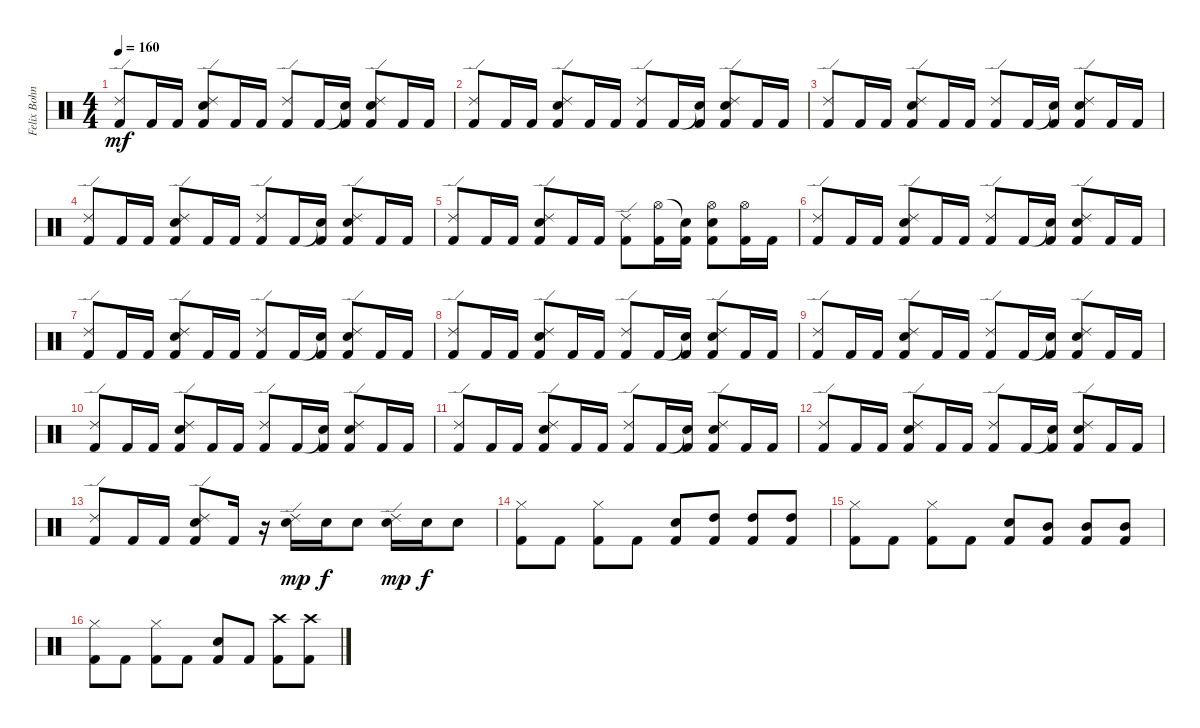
\track ("Felix Bohnke" "Felix Bohn") {instrument percussion}
\staff {score}
\articulation defaults
\ts (4 4)
\tempo 160
\clef neutral
\ks c
("Ride (edge) 2" "Kick (hit) 2").8{dy mf} "Kick (hit) 2".16 "Kick (hit) 2".16 ("Ride (edge) 2" "Electric Snare (hit)" "Kick (hit) 2").8 "Kick (hit) 2".16 "Kick (hit) 2".16 ("Ride (edge) 2" "Kick (hit) 2").8 "Kick (hit) 2".16 ("Snare (hit)"{t} "Kick (hit) 2").16 ("Ride (edge) 2" "Electric Snare (hit)" "Kick (hit) 2").8 "Kick (hit) 2".16 "Kick (hit) 2".16 |
("Ride (edge) 2" "Kick (hit) 2").8 "Kick (hit) 2".16 "Kick (hit) 2".16 ("Ride (edge) 2" "Electric Snare (hit)" "Kick (hit) 2").8 "Kick (hit) 2".16 "Kick (hit) 2".16 ("Ride (edge) 2" "Kick (hit) 2").8 "Kick (hit) 2".16 ("Snare (hit)"{t} "Kick (hit) 2").16 ("Ride (edge) 2" "Electric Snare (hit)" "Kick (hit) 2").8 "Kick (hit) 2".16 "Kick (hit) 2".16 |
("Ride (edge) 2" "Kick (hit) 2").8 "Kick (hit) 2".16 "Kick (hit) 2".16 ("Ride (edge) 2" "Electric Snare (hit)" "Kick (hit) 2").8 "Kick (hit) 2".16 "Kick (hit) 2".16 ("Ride (edge) 2" "Kick (hit) 2").8 "Kick (hit) 2".16 ("Snare (hit)"{t} "Kick (hit) 2").16 ("Ride (edge) 2" "Electric Snare (hit)" "Kick (hit) 2").8 "Kick (hit) 2".16 "Kick (hit) 2".16 |
("Ride (edge) 2" "Kick (hit) 2").8 "Kick (hit) 2".16 "Kick (hit) 2".16 ("Ride (edge) 2" "Electric Snare (hit)" "Kick (hit) 2").8 "Kick (hit) 2".16 "Kick (hit) 2".16 ("Ride (edge) 2" "Kick (hit) 2").8 "Kick (hit) 2".16 ("Snare (hit)"{t} "Kick (hit) 2").16 ("Ride (edge) 2" "Electric Snare (hit)" "Kick (hit) 2").8 "Kick (hit) 2".16 "Kick (hit) 2".16 |
("Ride (edge) 2" "Kick (hit) 2").8 "Kick (hit) 2".16 "Kick (hit) 2".16 ("Ride (edge) 2" "Electric Snare (hit)" "Kick (hit) 2").8 "Kick (hit) 2".16 "Kick (hit) 2".16 ("Ride (edge) 2" "Kick (hit) 2").8 ("Hi-Hat (open)" "Kick (hit) 2").16 ("Snare (hit)"{t} "Kick (hit) 2").16 ("Hi-Hat (open)" "Electric Snare (hit)" "Kick (hit) 2").8 ("Hi-Hat (open)" "Kick (hit) 2").16 "Kick (hit) 2".16 |
("Ride (edge) 2" "Kick (hit) 2").8 "Kick (hit) 2".16 "Kick (hit) 2".16 ("Ride (edge) 2" "Electric Snare (hit)" "Kick (hit) 2").8 "Kick (hit) 2".16 "Kick (hit) 2".16 ("Ride (edge) 2" "Kick (hit) 2").8 "Kick (hit) 2".16 ("Snare (hit)"{t} "Kick (hit) 2").16 ("Ride (edge) 2" "Electric Snare (hit)" "Kick (hit) 2").8 "Kick (hit) 2".16 "Kick (hit) 2".16 |
("Ride (edge) 2" "Kick (hit) 2").8 "Kick (hit) 2".16 "Kick (hit) 2".16 ("Ride (edge) 2" "Electric Snare (hit)" "Kick (hit) 2").8 "Kick (hit) 2".16 "Kick (hit) 2".16 ("Ride (edge) 2" "Kick (hit) 2").8 "Kick (hit) 2".16 ("Snare (hit)"{t} "Kick (hit) 2").16 ("Ride (edge) 2" "Electric Snare (hit)" "Kick (hit) 2").8 "Kick (hit) 2".16 "Kick (hit) 2".16 |
("Ride (edge) 2" "Kick (hit) 2").8 "Kick (hit) 2".16 "Kick (hit) 2".16 ("Ride (edge) 2" "Electric Snare (hit)" "Kick (hit) 2").8 "Kick (hit) 2".16 "Kick (hit) 2".16 ("Ride (edge) 2" "Kick (hit) 2").8 "Kick (hit) 2".16 ("Snare (hit)"{t} "Kick (hit) 2").16 ("Ride (edge) 2" "Electric Snare (hit)" "Kick (hit) 2").8 "Kick (hit) 2".16 "Kick (hit) 2".16 |
("Ride (edge) 2" "Kick (hit) 2").8 "Kick (hit) 2".16 "Kick (hit) 2".16 ("Ride (edge) 2" "Electric Snare (hit)" "Kick (hit) 2").8 "Kick (hit) 2".16 "Kick (hit) 2".16 ("Ride (edge) 2" "Kick (hit) 2").8 "Kick (hit) 2".16 ("Snare (hit)"{t} "Kick (hit) 2").16 ("Ride (edge) 2" "Electric Snare (hit)" "Kick (hit) 2").8 "Kick (hit) 2".16 "Kick (hit) 2".16 |
("Ride (edge) 2" "Kick (hit) 2").8 "Kick (hit) 2".16 "Kick (hit) 2".16 ("Ride (edge) 2" "Electric Snare (hit)" "Kick (hit) 2").8 "Kick (hit) 2".16 "Kick (hit) 2".16 ("Ride (edge) 2" "Kick (hit) 2").8 "Kick (hit) 2".16 ("Snare (hit)"{t} "Kick (hit) 2").16 ("Ride (edge) 2" "Electric Snare (hit)" "Kick (hit) 2").8 "Kick (hit) 2".16 "Kick (hit) 2".16 |
("Ride (edge) 2" "Kick (hit) 2").8 "Kick (hit) 2".16 "Kick (hit) 2".16 ("Ride (edge) 2" "Electric Snare (hit)" "Kick (hit) 2").8 "Kick (hit) 2".16 "Kick (hit) 2".16 ("Ride (edge) 2" "Kick (hit) 2").8 "Kick (hit) 2".16 ("Snare (hit)"{t} "Kick (hit) 2").16 ("Ride (edge) 2" "Electric Snare (hit)" "Kick (hit) 2").8 "Kick (hit) 2".16 "Kick (hit) 2".16 |
("Ride (edge) 2" "Kick (hit) 2").8 "Kick (hit) 2".16 "Kick (hit) 2".16 ("Ride (edge) 2" "Electric Snare (hit)" "Kick (hit) 2").8 "Kick (hit) 2".16 "Kick (hit) 2".16 ("Ride (edge) 2" "Kick (hit) 2").8 "Kick (hit) 2".16 ("Snare (hit)"{t} "Kick (hit) 2").16 ("Ride (edge) 2" "Electric Snare (hit)" "Kick (hit) 2").8 "Kick (hit) 2".16 "Kick (hit) 2".16 |
("Ride (edge) 2" "Kick (hit) 2").8 "Kick (hit) 2".16 "Kick (hit) 2".16 ("Ride (edge) 2" "Electric Snare (hit)" "Kick (hit) 2").8 "Kick (hit) 2".16 r.16 ("Ride (edge) 2" "Electric Snare (hit)").16{dy mp} "Electric Snare (hit)".16{dy f} "Electric Snare (hit)".8 ("Ride (edge) 2" "Electric Snare (hit)").16{dy mp} "Electric Snare (hit)".16{dy f} "Electric Snare (hit)".8 |
("Hi-Hat (closed)" "Kick (hit) 2").8 "Kick (hit) 2".8 ("Hi-Hat (closed)" "Kick (hit) 2").8 "Kick (hit) 2".8 ("Electric Snare (hit)" "Kick (hit) 2").8 ("High Tom (hit)" "Kick (hit) 2").8 ("High Tom (hit)" "Kick (hit) 2").8 ("High Tom (hit)" "Kick (hit) 2").8 |
("Hi-Hat (closed)" "Kick (hit) 2").8 "Kick (hit) 2".8 ("Hi-Hat (closed)" "Kick (hit) 2").8 "Kick (hit) 2".8 ("Electric Snare (hit)" "Kick (hit) 2").8 ("Mid Tom (hit)" "Kick (hit) 2").8 ("Mid Tom (hit)" "Kick (hit) 2").8 ("Mid Tom (hit)" "Kick (hit) 2").8 |
("Hi-Hat (closed)" "Kick (hit) 2").8 "Kick (hit) 2".8 ("Hi-Hat (closed)" "Kick (hit) 2").8 "Kick (hit) 2".8 ("Electric Snare (hit)" "Kick (hit) 2").8 "Kick (hit) 2".8 ("Crash high (hit)" "Kick (hit) 2").8 ("Crash high (hit)" "Kick (hit) 2").8
